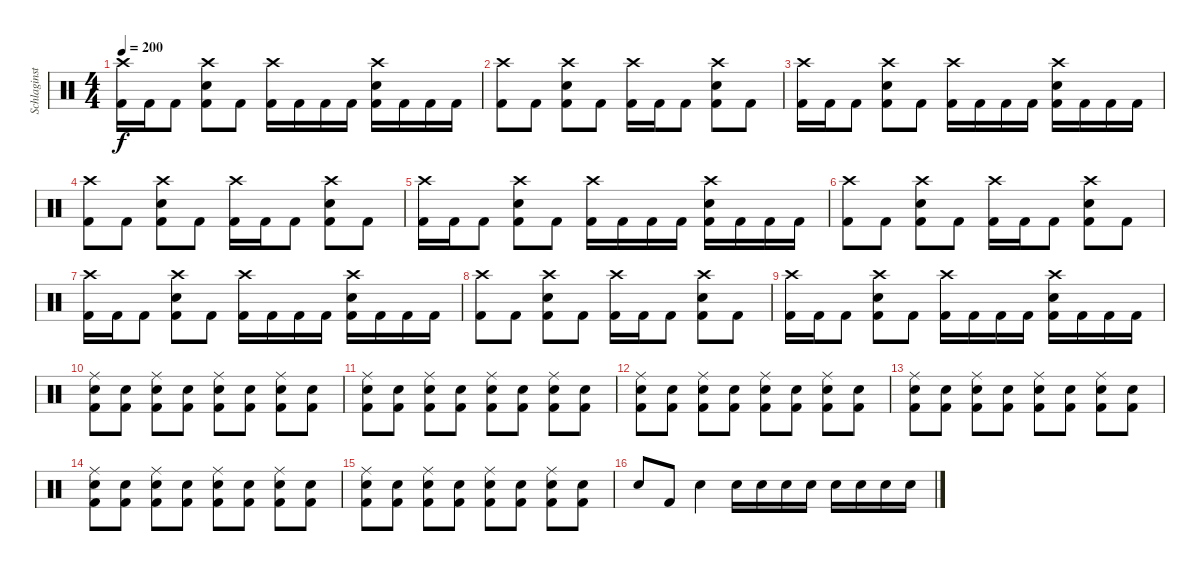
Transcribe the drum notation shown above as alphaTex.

\track ("Schlaginstrumente - Auswahl" "Schlaginst") {instrument percussion}
\staff {score}
\articulation defaults
\ts (4 4)
\tempo 200
\clef neutral
\ks c
("Crash high (hit)" "Kick (hit) 2").16{dy f} "Kick (hit) 2".16 "Kick (hit) 2".8 ("Crash high (hit)" "Snare (hit) 2" "Kick (hit) 2").8 "Kick (hit) 2".8 ("Crash high (hit)" "Kick (hit) 2").16 "Kick (hit) 2".16 "Kick (hit) 2".16 "Kick (hit) 2".16 ("Crash high (hit)" "Snare (hit) 2" "Kick (hit) 2").16 "Kick (hit) 2".16 "Kick (hit) 2".16 "Kick (hit) 2".16 |
("Crash high (hit)" "Kick (hit) 2").8 "Kick (hit) 2".8 ("Crash high (hit)" "Snare (hit) 2" "Kick (hit) 2").8 "Kick (hit) 2".8 ("Crash high (hit)" "Kick (hit) 2").16 "Kick (hit) 2".16 "Kick (hit) 2".8 ("Crash high (hit)" "Snare (hit) 2" "Kick (hit) 2").8 "Kick (hit) 2".8 |
("Crash high (hit)" "Kick (hit) 2").16 "Kick (hit) 2".16 "Kick (hit) 2".8 ("Crash high (hit)" "Snare (hit) 2" "Kick (hit) 2").8 "Kick (hit) 2".8 ("Crash high (hit)" "Kick (hit) 2").16 "Kick (hit) 2".16 "Kick (hit) 2".16 "Kick (hit) 2".16 ("Crash high (hit)" "Snare (hit) 2" "Kick (hit) 2").16 "Kick (hit) 2".16 "Kick (hit) 2".16 "Kick (hit) 2".16 |
("Crash high (hit)" "Kick (hit) 2").8 "Kick (hit) 2".8 ("Crash high (hit)" "Snare (hit) 2" "Kick (hit) 2").8 "Kick (hit) 2".8 ("Crash high (hit)" "Kick (hit) 2").16 "Kick (hit) 2".16 "Kick (hit) 2".8 ("Crash high (hit)" "Snare (hit) 2" "Kick (hit) 2").8 "Kick (hit) 2".8 |
("Crash high (hit)" "Kick (hit) 2").16 "Kick (hit) 2".16 "Kick (hit) 2".8 ("Crash high (hit)" "Snare (hit) 2" "Kick (hit) 2").8 "Kick (hit) 2".8 ("Crash high (hit)" "Kick (hit) 2").16 "Kick (hit) 2".16 "Kick (hit) 2".16 "Kick (hit) 2".16 ("Crash high (hit)" "Snare (hit) 2" "Kick (hit) 2").16 "Kick (hit) 2".16 "Kick (hit) 2".16 "Kick (hit) 2".16 |
("Crash high (hit)" "Kick (hit) 2").8 "Kick (hit) 2".8 ("Crash high (hit)" "Snare (hit) 2" "Kick (hit) 2").8 "Kick (hit) 2".8 ("Crash high (hit)" "Kick (hit) 2").16 "Kick (hit) 2".16 "Kick (hit) 2".8 ("Crash high (hit)" "Snare (hit) 2" "Kick (hit) 2").8 "Kick (hit) 2".8 |
("Crash high (hit)" "Kick (hit) 2").16 "Kick (hit) 2".16 "Kick (hit) 2".8 ("Crash high (hit)" "Snare (hit) 2" "Kick (hit) 2").8 "Kick (hit) 2".8 ("Crash high (hit)" "Kick (hit) 2").16 "Kick (hit) 2".16 "Kick (hit) 2".16 "Kick (hit) 2".16 ("Crash high (hit)" "Snare (hit) 2" "Kick (hit) 2").16 "Kick (hit) 2".16 "Kick (hit) 2".16 "Kick (hit) 2".16 |
("Crash high (hit)" "Kick (hit) 2").8 "Kick (hit) 2".8 ("Crash high (hit)" "Snare (hit) 2" "Kick (hit) 2").8 "Kick (hit) 2".8 ("Crash high (hit)" "Kick (hit) 2").16 "Kick (hit) 2".16 "Kick (hit) 2".8 ("Crash high (hit)" "Snare (hit) 2" "Kick (hit) 2").8 "Kick (hit) 2".8 |
("Crash high (hit)" "Kick (hit) 2").16 "Kick (hit) 2".16 "Kick (hit) 2".8 ("Crash high (hit)" "Snare (hit) 2" "Kick (hit) 2").8 "Kick (hit) 2".8 ("Crash high (hit)" "Kick (hit) 2").16 "Kick (hit) 2".16 "Kick (hit) 2".16 "Kick (hit) 2".16 ("Crash high (hit)" "Snare (hit) 2" "Kick (hit) 2").16 "Kick (hit) 2".16 "Kick (hit) 2".16 "Kick (hit) 2".16 |
("Ride (middle)" "Snare (hit) 2" "Kick (hit) 2").8 ("Snare (hit) 2" "Kick (hit) 2").8 ("Ride (middle)" "Snare (hit) 2" "Kick (hit) 2").8 ("Snare (hit) 2" "Kick (hit) 2").8 ("Ride (middle)" "Snare (hit) 2" "Kick (hit) 2").8 ("Snare (hit) 2" "Kick (hit) 2").8 ("Ride (middle)" "Snare (hit) 2" "Kick (hit) 2").8 ("Snare (hit) 2" "Kick (hit) 2").8 |
("Ride (middle)" "Snare (hit) 2" "Kick (hit) 2").8 ("Snare (hit) 2" "Kick (hit) 2").8 ("Ride (middle)" "Snare (hit) 2" "Kick (hit) 2").8 ("Snare (hit) 2" "Kick (hit) 2").8 ("Ride (middle)" "Snare (hit) 2" "Kick (hit) 2").8 ("Snare (hit) 2" "Kick (hit) 2").8 ("Ride (middle)" "Snare (hit) 2" "Kick (hit) 2").8 ("Snare (hit) 2" "Kick (hit) 2").8 |
("Ride (middle)" "Snare (hit) 2" "Kick (hit) 2").8 ("Snare (hit) 2" "Kick (hit) 2").8 ("Ride (middle)" "Snare (hit) 2" "Kick (hit) 2").8 ("Snare (hit) 2" "Kick (hit) 2").8 ("Ride (middle)" "Snare (hit) 2" "Kick (hit) 2").8 ("Snare (hit) 2" "Kick (hit) 2").8 ("Ride (middle)" "Snare (hit) 2" "Kick (hit) 2").8 ("Snare (hit) 2" "Kick (hit) 2").8 |
("Ride (middle)" "Snare (hit) 2" "Kick (hit) 2").8 ("Snare (hit) 2" "Kick (hit) 2").8 ("Ride (middle)" "Snare (hit) 2" "Kick (hit) 2").8 ("Snare (hit) 2" "Kick (hit) 2").8 ("Ride (middle)" "Snare (hit) 2" "Kick (hit) 2").8 ("Snare (hit) 2" "Kick (hit) 2").8 ("Ride (middle)" "Snare (hit) 2" "Kick (hit) 2").8 ("Snare (hit) 2" "Kick (hit) 2").8 |
("Ride (middle)" "Snare (hit) 2" "Kick (hit) 2").8 ("Snare (hit) 2" "Kick (hit) 2").8 ("Ride (middle)" "Snare (hit) 2" "Kick (hit) 2").8 ("Snare (hit) 2" "Kick (hit) 2").8 ("Ride (middle)" "Snare (hit) 2" "Kick (hit) 2").8 ("Snare (hit) 2" "Kick (hit) 2").8 ("Ride (middle)" "Snare (hit) 2" "Kick (hit) 2").8 ("Snare (hit) 2" "Kick (hit) 2").8 |
("Ride (middle)" "Snare (hit) 2" "Kick (hit) 2").8 ("Snare (hit) 2" "Kick (hit) 2").8 ("Ride (middle)" "Snare (hit) 2" "Kick (hit) 2").8 ("Snare (hit) 2" "Kick (hit) 2").8 ("Ride (middle)" "Snare (hit) 2" "Kick (hit) 2").8 ("Snare (hit) 2" "Kick (hit) 2").8 ("Ride (middle)" "Snare (hit) 2" "Kick (hit) 2").8 ("Snare (hit) 2" "Kick (hit) 2").8 |
"Snare (hit) 2".8 "Kick (hit) 2".8 "Snare (hit) 2".4 "Snare (hit) 2".16 "Snare (hit) 2".16 "Snare (hit) 2".16 "Snare (hit) 2".16 "Snare (hit) 2".16 "Snare (hit) 2".16 "Snare (hit) 2".16 "Snare (hit) 2".16
